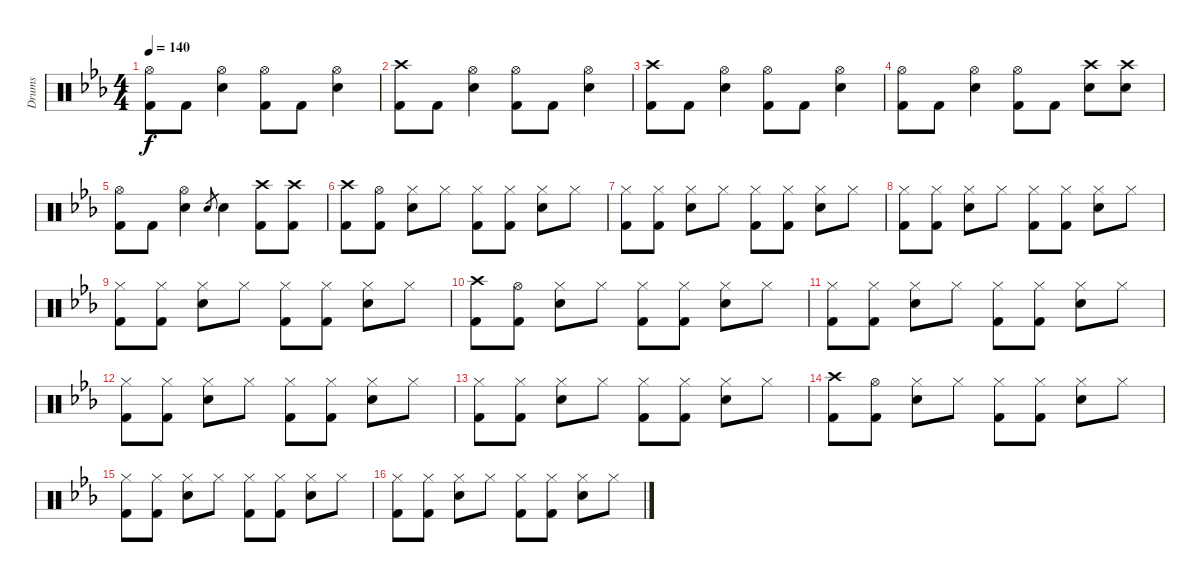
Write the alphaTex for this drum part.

\track ("Drums" "Drums") {instrument percussion}
\staff {score}
\articulation defaults
\ts (4 4)
\tempo 140
\clef neutral
\ks eb
("Hi-Hat (open)" "Kick (hit) 2").8{dy f} "Kick (hit) 2".8 ("Hi-Hat (open)" "Electric Snare (hit)").4 ("Hi-Hat (open)" "Kick (hit) 2").8 "Kick (hit) 2".8 ("Hi-Hat (open)" "Electric Snare (hit)").4 |
("Crash high (hit)" "Kick (hit) 2").8 "Kick (hit) 2".8 ("Hi-Hat (open)" "Electric Snare (hit)").4 ("Hi-Hat (open)" "Kick (hit) 2").8 "Kick (hit) 2".8 ("Hi-Hat (open)" "Electric Snare (hit)").4 |
("Crash high (hit)" "Kick (hit) 2").8 "Kick (hit) 2".8 ("Hi-Hat (open)" "Electric Snare (hit)").4 ("Hi-Hat (open)" "Kick (hit) 2").8 "Kick (hit) 2".8 ("Hi-Hat (open)" "Electric Snare (hit)").4 |
("Hi-Hat (open)" "Kick (hit) 2").8 "Kick (hit) 2".8 ("Hi-Hat (open)" "Electric Snare (hit)").4 ("Hi-Hat (open)" "Kick (hit) 2").8 "Kick (hit) 2".8 ("Crash high (hit)" "Electric Snare (hit)").8 ("Crash high (hit)" "Electric Snare (hit)").8 |
("Hi-Hat (open)" "Kick (hit) 2").8 "Kick (hit) 2".8 ("Hi-Hat (open)" "Electric Snare (hit)").4 "Electric Snare (hit)".8{gr} "Electric Snare (hit)".4 ("Crash high (hit)" "Kick (hit) 2").8 ("Crash high (hit)" "Kick (hit) 2").8 |
("Crash high (hit)" "Kick (hit) 2").8 ("Hi-Hat (open)" "Kick (hit) 2").8 ("Hi-Hat (closed)" "Electric Snare (hit)").8 "Hi-Hat (closed)".8 ("Hi-Hat (closed)" "Kick (hit) 2").8 ("Hi-Hat (closed)" "Kick (hit) 2").8 ("Hi-Hat (closed)" "Electric Snare (hit)").8 "Hi-Hat (closed)".8 |
("Hi-Hat (closed)" "Kick (hit) 2").8 ("Hi-Hat (closed)" "Kick (hit) 2").8 ("Hi-Hat (closed)" "Electric Snare (hit)").8 "Hi-Hat (closed)".8 ("Hi-Hat (closed)" "Kick (hit) 2").8 ("Hi-Hat (closed)" "Kick (hit) 2").8 ("Hi-Hat (closed)" "Electric Snare (hit)").8 "Hi-Hat (closed)".8 |
("Hi-Hat (closed)" "Kick (hit) 2").8 ("Hi-Hat (closed)" "Kick (hit) 2").8 ("Hi-Hat (closed)" "Electric Snare (hit)").8 "Hi-Hat (closed)".8 ("Hi-Hat (closed)" "Kick (hit) 2").8 ("Hi-Hat (closed)" "Kick (hit) 2").8 ("Hi-Hat (closed)" "Electric Snare (hit)").8 "Hi-Hat (closed)".8 |
("Hi-Hat (closed)" "Kick (hit) 2").8 ("Hi-Hat (closed)" "Kick (hit) 2").8 ("Hi-Hat (closed)" "Electric Snare (hit)").8 "Hi-Hat (closed)".8 ("Hi-Hat (closed)" "Kick (hit) 2").8 ("Hi-Hat (closed)" "Kick (hit) 2").8 ("Hi-Hat (closed)" "Electric Snare (hit)").8 "Hi-Hat (closed)".8 |
("Crash high (hit)" "Kick (hit) 2").8 ("Hi-Hat (open)" "Kick (hit) 2").8 ("Hi-Hat (closed)" "Electric Snare (hit)").8 "Hi-Hat (closed)".8 ("Hi-Hat (closed)" "Kick (hit) 2").8 ("Hi-Hat (closed)" "Kick (hit) 2").8 ("Hi-Hat (closed)" "Electric Snare (hit)").8 "Hi-Hat (closed)".8 |
("Hi-Hat (closed)" "Kick (hit) 2").8 ("Hi-Hat (closed)" "Kick (hit) 2").8 ("Hi-Hat (closed)" "Electric Snare (hit)").8 "Hi-Hat (closed)".8 ("Hi-Hat (closed)" "Kick (hit) 2").8 ("Hi-Hat (closed)" "Kick (hit) 2").8 ("Hi-Hat (closed)" "Electric Snare (hit)").8 "Hi-Hat (closed)".8 |
("Hi-Hat (closed)" "Kick (hit) 2").8 ("Hi-Hat (closed)" "Kick (hit) 2").8 ("Hi-Hat (closed)" "Electric Snare (hit)").8 "Hi-Hat (closed)".8 ("Hi-Hat (closed)" "Kick (hit) 2").8 ("Hi-Hat (closed)" "Kick (hit) 2").8 ("Hi-Hat (closed)" "Electric Snare (hit)").8 "Hi-Hat (closed)".8 |
("Hi-Hat (closed)" "Kick (hit) 2").8 ("Hi-Hat (closed)" "Kick (hit) 2").8 ("Hi-Hat (closed)" "Electric Snare (hit)").8 "Hi-Hat (closed)".8 ("Hi-Hat (closed)" "Kick (hit) 2").8 ("Hi-Hat (closed)" "Kick (hit) 2").8 ("Hi-Hat (closed)" "Electric Snare (hit)").8 "Hi-Hat (closed)".8 |
("Crash high (hit)" "Kick (hit) 2").8 ("Hi-Hat (open)" "Kick (hit) 2").8 ("Hi-Hat (closed)" "Electric Snare (hit)").8 "Hi-Hat (closed)".8 ("Hi-Hat (closed)" "Kick (hit) 2").8 ("Hi-Hat (closed)" "Kick (hit) 2").8 ("Hi-Hat (closed)" "Electric Snare (hit)").8 "Hi-Hat (closed)".8 |
("Hi-Hat (closed)" "Kick (hit) 2").8 ("Hi-Hat (closed)" "Kick (hit) 2").8 ("Hi-Hat (closed)" "Electric Snare (hit)").8 "Hi-Hat (closed)".8 ("Hi-Hat (closed)" "Kick (hit) 2").8 ("Hi-Hat (closed)" "Kick (hit) 2").8 ("Hi-Hat (closed)" "Electric Snare (hit)").8 "Hi-Hat (closed)".8 |
("Hi-Hat (closed)" "Kick (hit) 2").8 ("Hi-Hat (closed)" "Kick (hit) 2").8 ("Hi-Hat (closed)" "Electric Snare (hit)").8 "Hi-Hat (closed)".8 ("Hi-Hat (closed)" "Kick (hit) 2").8 ("Hi-Hat (closed)" "Kick (hit) 2").8 ("Hi-Hat (closed)" "Electric Snare (hit)").8 "Hi-Hat (closed)".8
